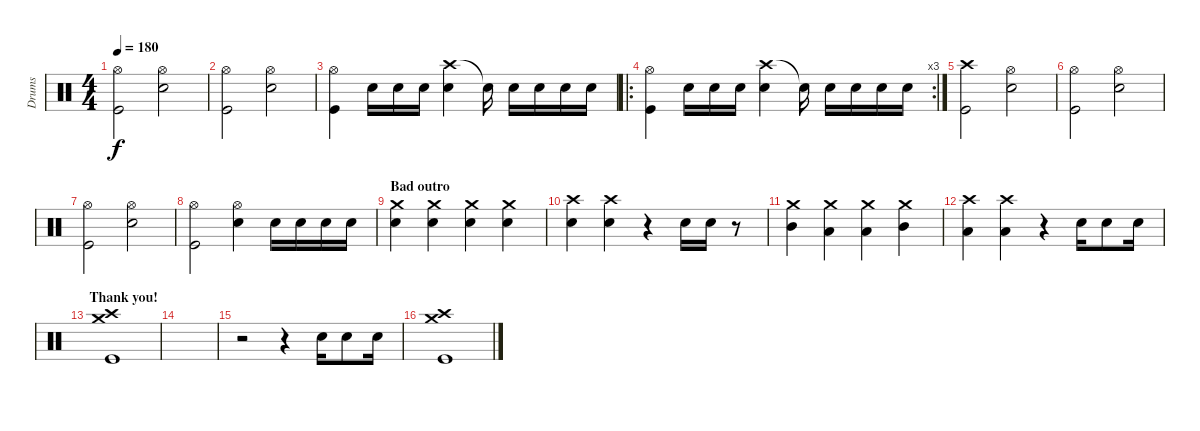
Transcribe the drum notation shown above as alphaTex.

\track ("Drums" "Drums") {instrument percussion}
\staff {score}
\articulation defaults
\ts (4 4)
\tempo 180
\clef neutral
\ks c
("Hi-Hat (open)" "Kick (hit)").2{dy f} ("Hi-Hat (open)" "Electric Snare (hit)").2 |
("Hi-Hat (open)" "Kick (hit)").2 ("Hi-Hat (open)" "Electric Snare (hit)").2 |
("Hi-Hat (open)" "Kick (hit)").4 "Electric Snare (hit)".16 "Electric Snare (hit)".16 "Electric Snare (hit)".16 ("Crash high (hit)" "Electric Snare (hit)").4 "Snare (hit)"{t}.16 "Electric Snare (hit)".16 "Electric Snare (hit)".16 "Electric Snare (hit)".16 "Electric Snare (hit)".16 |
\ro
\rc 3
("Hi-Hat (open)" "Kick (hit)").4 "Electric Snare (hit)".16 "Electric Snare (hit)".16 "Electric Snare (hit)".16 ("Crash high (hit)" "Electric Snare (hit)").4 "Snare (hit)"{t}.16 "Electric Snare (hit)".16 "Electric Snare (hit)".16 "Electric Snare (hit)".16 "Electric Snare (hit)".16 |
("Crash high (hit)" "Kick (hit)").2 ("Hi-Hat (open)" "Electric Snare (hit)").2 |
("Hi-Hat (open)" "Kick (hit)").2 ("Hi-Hat (open)" "Electric Snare (hit)").2 |
("Hi-Hat (open)" "Kick (hit)").2 ("Hi-Hat (open)" "Electric Snare (hit)").2 |
("Hi-Hat (open)" "Kick (hit)").2 ("Hi-Hat (open)" "Electric Snare (hit)").4 "Electric Snare (hit)".16 "Electric Snare (hit)".16 "Electric Snare (hit)".16 "Electric Snare (hit)".16 |
\section ("" "Bad outro")
("Crash medium (hit)" "Electric Snare (hit)").4 ("Crash medium (hit)" "Electric Snare (hit)").4 ("Crash medium (hit)" "Electric Snare (hit)").4 ("Crash medium (hit)" "Electric Snare (hit)").4 |
("Crash high (hit)" "Electric Snare (hit)").4 ("Crash high (hit)" "Electric Snare (hit)").4 r.4 "Electric Snare (hit)".16 "Electric Snare (hit)".16 r.8 |
("Crash medium (hit)" "Mid Tom (hit)").4 ("Crash medium (hit)" "Low Tom (hit)").4 ("Crash medium (hit)" "Low Tom (hit)").4 ("Crash medium (hit)" "Mid Tom (hit)").4 |
("Crash high (hit)" "Low Floor Tom (hit)").4 ("Crash high (hit)" "Low Floor Tom (hit)").4 r.4 "Electric Snare (hit)".16 "Electric Snare (hit)".8 "Electric Snare (hit)".16 |
\section ("" "Thank you!")
("Crash high (hit)" "Crash medium (hit)" "Kick (hit)").1 |
|
r.2 r.4 "Electric Snare (hit)".16 "Electric Snare (hit)".8 "Electric Snare (hit)".16 |
("Crash high (hit)" "Crash medium (hit)" "Kick (hit)").1
